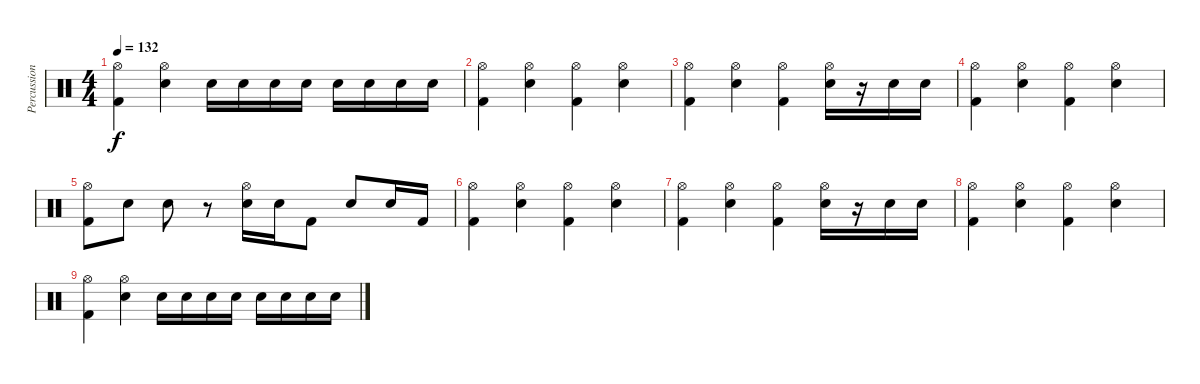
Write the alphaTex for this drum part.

\track ("Percussion" "Percussion") {instrument percussion}
\staff {score}
\articulation defaults
\ts (4 4)
\tempo 132
\clef neutral
\ks c
("Kick (hit) 2" "Hi-Hat (open)").4{dy f} ("Hi-Hat (open)" "Snare (hit) 2").4 "Electric Snare (hit)".16 "Electric Snare (hit)".16 "Electric Snare (hit)".16 "Electric Snare (hit)".16 "Electric Snare (hit)".16 "Electric Snare (hit)".16 "Electric Snare (hit)".16 "Electric Snare (hit)".16 |
("Kick (hit) 2" "Hi-Hat (open)").4 ("Hi-Hat (open)" "Snare (hit) 2").4 ("Kick (hit) 2" "Hi-Hat (open)").4 ("Hi-Hat (open)" "Snare (hit) 2").4 |
("Kick (hit) 2" "Hi-Hat (open)").4 ("Hi-Hat (open)" "Snare (hit) 2").4 ("Kick (hit) 2" "Hi-Hat (open)").4 ("Electric Snare (hit)" "Hi-Hat (open)").16 r.16 "Electric Snare (hit)".16 "Electric Snare (hit)".16 |
("Kick (hit) 2" "Hi-Hat (open)").4 ("Hi-Hat (open)" "Snare (hit) 2").4 ("Kick (hit) 2" "Hi-Hat (open)").4 ("Hi-Hat (open)" "Snare (hit) 2").4 |
("Kick (hit) 2" "Hi-Hat (open)").8 "Snare (hit) 2".8 "Snare (hit) 2".8 r.8 ("Snare (hit) 2" "Hi-Hat (open)").16 "Snare (hit) 2".16 "Kick (hit) 2".8 "Snare (hit) 2".8 "Snare (hit) 2".16 "Kick (hit) 2".16 |
("Kick (hit) 2" "Hi-Hat (open)").4 ("Hi-Hat (open)" "Snare (hit) 2").4 ("Kick (hit) 2" "Hi-Hat (open)").4 ("Hi-Hat (open)" "Snare (hit) 2").4 |
("Kick (hit) 2" "Hi-Hat (open)").4 ("Hi-Hat (open)" "Snare (hit) 2").4 ("Kick (hit) 2" "Hi-Hat (open)").4 ("Electric Snare (hit)" "Hi-Hat (open)").16 r.16 "Electric Snare (hit)".16 "Electric Snare (hit)".16 |
("Kick (hit) 2" "Hi-Hat (open)").4 ("Hi-Hat (open)" "Snare (hit) 2").4 ("Kick (hit) 2" "Hi-Hat (open)").4 ("Hi-Hat (open)" "Snare (hit) 2").4 |
("Kick (hit) 2" "Hi-Hat (open)").4 ("Hi-Hat (open)" "Snare (hit) 2").4 "Electric Snare (hit)".16 "Electric Snare (hit)".16 "Electric Snare (hit)".16 "Electric Snare (hit)".16 "Electric Snare (hit)".16 "Electric Snare (hit)".16 "Electric Snare (hit)".16 "Electric Snare (hit)".16
